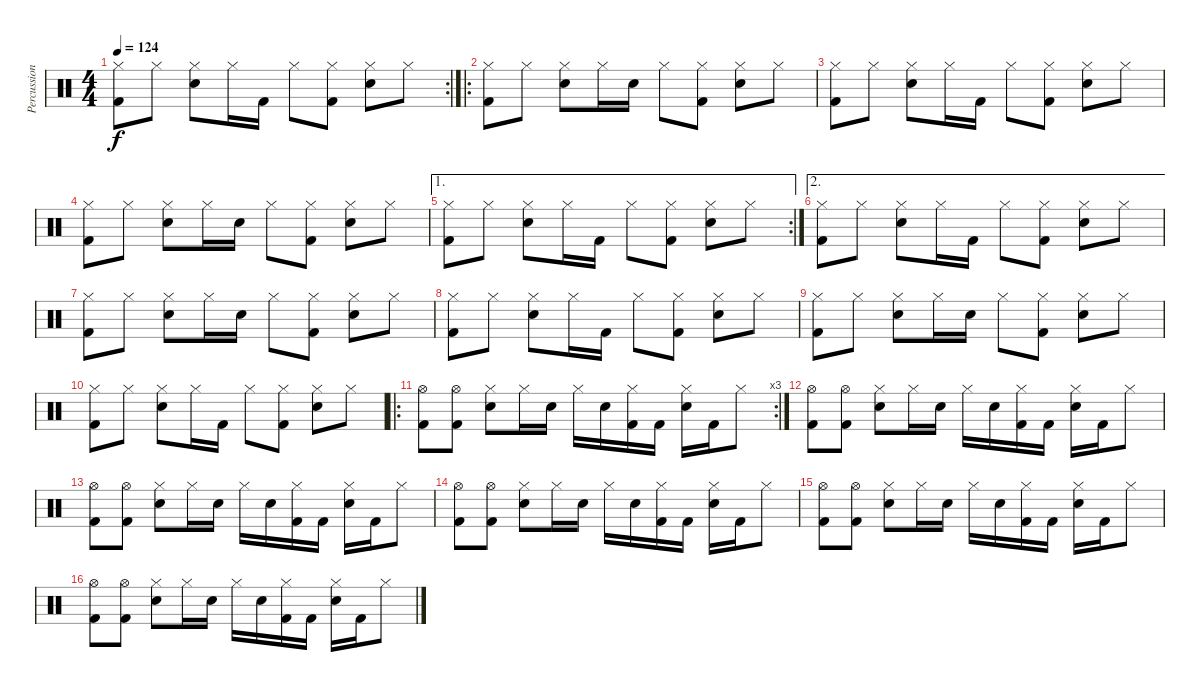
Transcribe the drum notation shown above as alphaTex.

\track ("Percussion" "Percussion") {instrument percussion}
\staff {score}
\articulation defaults
\rc 2
\ts (4 4)
\tempo 124
\clef neutral
\ks c
("Hi-Hat (closed)" "Kick (hit) 2").8{dy f} "Hi-Hat (closed)".8 ("Hi-Hat (closed)" "Electric Snare (hit)").8 "Hi-Hat (closed)".16 "Kick (hit) 2".16 "Hi-Hat (closed)".8 ("Hi-Hat (closed)" "Kick (hit) 2").8 ("Hi-Hat (closed)" "Electric Snare (hit)").8 "Hi-Hat (closed)".8 |
\ro
("Hi-Hat (closed)" "Kick (hit) 2").8 "Hi-Hat (closed)".8 ("Hi-Hat (closed)" "Electric Snare (hit)").8 "Hi-Hat (closed)".16 "Electric Snare (hit)".16 "Hi-Hat (closed)".8 ("Hi-Hat (closed)" "Kick (hit) 2").8 ("Hi-Hat (closed)" "Electric Snare (hit)").8 "Hi-Hat (closed)".8 |
("Hi-Hat (closed)" "Kick (hit) 2").8 "Hi-Hat (closed)".8 ("Hi-Hat (closed)" "Electric Snare (hit)").8 "Hi-Hat (closed)".16 "Kick (hit) 2".16 "Hi-Hat (closed)".8 ("Hi-Hat (closed)" "Kick (hit) 2").8 ("Hi-Hat (closed)" "Electric Snare (hit)").8 "Hi-Hat (closed)".8 |
("Hi-Hat (closed)" "Kick (hit) 2").8 "Hi-Hat (closed)".8 ("Hi-Hat (closed)" "Electric Snare (hit)").8 "Hi-Hat (closed)".16 "Electric Snare (hit)".16 "Hi-Hat (closed)".8 ("Hi-Hat (closed)" "Kick (hit) 2").8 ("Hi-Hat (closed)" "Electric Snare (hit)").8 "Hi-Hat (closed)".8 |
\ae 1
\rc 2
("Hi-Hat (closed)" "Kick (hit) 2").8 "Hi-Hat (closed)".8 ("Hi-Hat (closed)" "Electric Snare (hit)").8 "Hi-Hat (closed)".16 "Kick (hit) 2".16 "Hi-Hat (closed)".8 ("Hi-Hat (closed)" "Kick (hit) 2").8 ("Hi-Hat (closed)" "Electric Snare (hit)").8 "Hi-Hat (closed)".8 |
\ae 2
("Hi-Hat (closed)" "Kick (hit) 2").8 "Hi-Hat (closed)".8 ("Hi-Hat (closed)" "Electric Snare (hit)").8 "Hi-Hat (closed)".16 "Kick (hit) 2".16 "Hi-Hat (closed)".8 ("Hi-Hat (closed)" "Kick (hit) 2").8 ("Hi-Hat (closed)" "Electric Snare (hit)").8 "Hi-Hat (closed)".8 |
("Hi-Hat (closed)" "Kick (hit) 2").8 "Hi-Hat (closed)".8 ("Hi-Hat (closed)" "Electric Snare (hit)").8 "Hi-Hat (closed)".16 "Electric Snare (hit)".16 "Hi-Hat (closed)".8 ("Hi-Hat (closed)" "Kick (hit) 2").8 ("Hi-Hat (closed)" "Electric Snare (hit)").8 "Hi-Hat (closed)".8 |
("Hi-Hat (closed)" "Kick (hit) 2").8 "Hi-Hat (closed)".8 ("Hi-Hat (closed)" "Electric Snare (hit)").8 "Hi-Hat (closed)".16 "Kick (hit) 2".16 "Hi-Hat (closed)".8 ("Hi-Hat (closed)" "Kick (hit) 2").8 ("Hi-Hat (closed)" "Electric Snare (hit)").8 "Hi-Hat (closed)".8 |
("Hi-Hat (closed)" "Kick (hit) 2").8 "Hi-Hat (closed)".8 ("Hi-Hat (closed)" "Electric Snare (hit)").8 "Hi-Hat (closed)".16 "Electric Snare (hit)".16 "Hi-Hat (closed)".8 ("Hi-Hat (closed)" "Kick (hit) 2").8 ("Hi-Hat (closed)" "Electric Snare (hit)").8 "Hi-Hat (closed)".8 |
("Hi-Hat (closed)" "Kick (hit) 2").8 "Hi-Hat (closed)".8 ("Hi-Hat (closed)" "Electric Snare (hit)").8 "Hi-Hat (closed)".16 "Kick (hit) 2".16 "Hi-Hat (closed)".8 ("Hi-Hat (closed)" "Kick (hit) 2").8 ("Hi-Hat (closed)" "Electric Snare (hit)").8 "Hi-Hat (closed)".8 |
\ro
\rc 3
("Hi-Hat (open)" "Kick (hit) 2").8 ("Hi-Hat (open)" "Kick (hit) 2").8 ("Hi-Hat (closed)" "Electric Snare (hit)").8 "Hi-Hat (closed)".16 "Electric Snare (hit)".16 "Hi-Hat (closed)".16 "Electric Snare (hit)".16 ("Hi-Hat (closed)" "Kick (hit) 2").16 "Kick (hit) 2".16 ("Hi-Hat (closed)" "Electric Snare (hit)").16 "Kick (hit) 2".16 "Hi-Hat (closed)".8 |
("Hi-Hat (open)" "Kick (hit) 2").8 ("Hi-Hat (open)" "Kick (hit) 2").8 ("Hi-Hat (closed)" "Electric Snare (hit)").8 "Hi-Hat (closed)".16 "Electric Snare (hit)".16 "Hi-Hat (closed)".16 "Electric Snare (hit)".16 ("Hi-Hat (closed)" "Kick (hit) 2").16 "Kick (hit) 2".16 ("Hi-Hat (closed)" "Electric Snare (hit)").16 "Kick (hit) 2".16 "Hi-Hat (closed)".8 |
("Hi-Hat (open)" "Kick (hit) 2").8 ("Hi-Hat (open)" "Kick (hit) 2").8 ("Hi-Hat (closed)" "Electric Snare (hit)").8 "Hi-Hat (closed)".16 "Electric Snare (hit)".16 "Hi-Hat (closed)".16 "Electric Snare (hit)".16 ("Hi-Hat (closed)" "Kick (hit) 2").16 "Kick (hit) 2".16 ("Hi-Hat (closed)" "Electric Snare (hit)").16 "Kick (hit) 2".16 "Hi-Hat (closed)".8 |
("Hi-Hat (open)" "Kick (hit) 2").8 ("Hi-Hat (open)" "Kick (hit) 2").8 ("Hi-Hat (closed)" "Electric Snare (hit)").8 "Hi-Hat (closed)".16 "Electric Snare (hit)".16 "Hi-Hat (closed)".16 "Electric Snare (hit)".16 ("Hi-Hat (closed)" "Kick (hit) 2").16 "Kick (hit) 2".16 ("Hi-Hat (closed)" "Electric Snare (hit)").16 "Kick (hit) 2".16 "Hi-Hat (closed)".8 |
("Hi-Hat (open)" "Kick (hit) 2").8 ("Hi-Hat (open)" "Kick (hit) 2").8 ("Hi-Hat (closed)" "Electric Snare (hit)").8 "Hi-Hat (closed)".16 "Electric Snare (hit)".16 "Hi-Hat (closed)".16 "Electric Snare (hit)".16 ("Hi-Hat (closed)" "Kick (hit) 2").16 "Kick (hit) 2".16 ("Hi-Hat (closed)" "Electric Snare (hit)").16 "Kick (hit) 2".16 "Hi-Hat (closed)".8 |
("Hi-Hat (open)" "Kick (hit) 2").8 ("Hi-Hat (open)" "Kick (hit) 2").8 ("Hi-Hat (closed)" "Electric Snare (hit)").8 "Hi-Hat (closed)".16 "Electric Snare (hit)".16 "Hi-Hat (closed)".16 "Electric Snare (hit)".16 ("Hi-Hat (closed)" "Kick (hit) 2").16 "Kick (hit) 2".16 ("Hi-Hat (closed)" "Electric Snare (hit)").16 "Kick (hit) 2".16 "Hi-Hat (closed)".8
